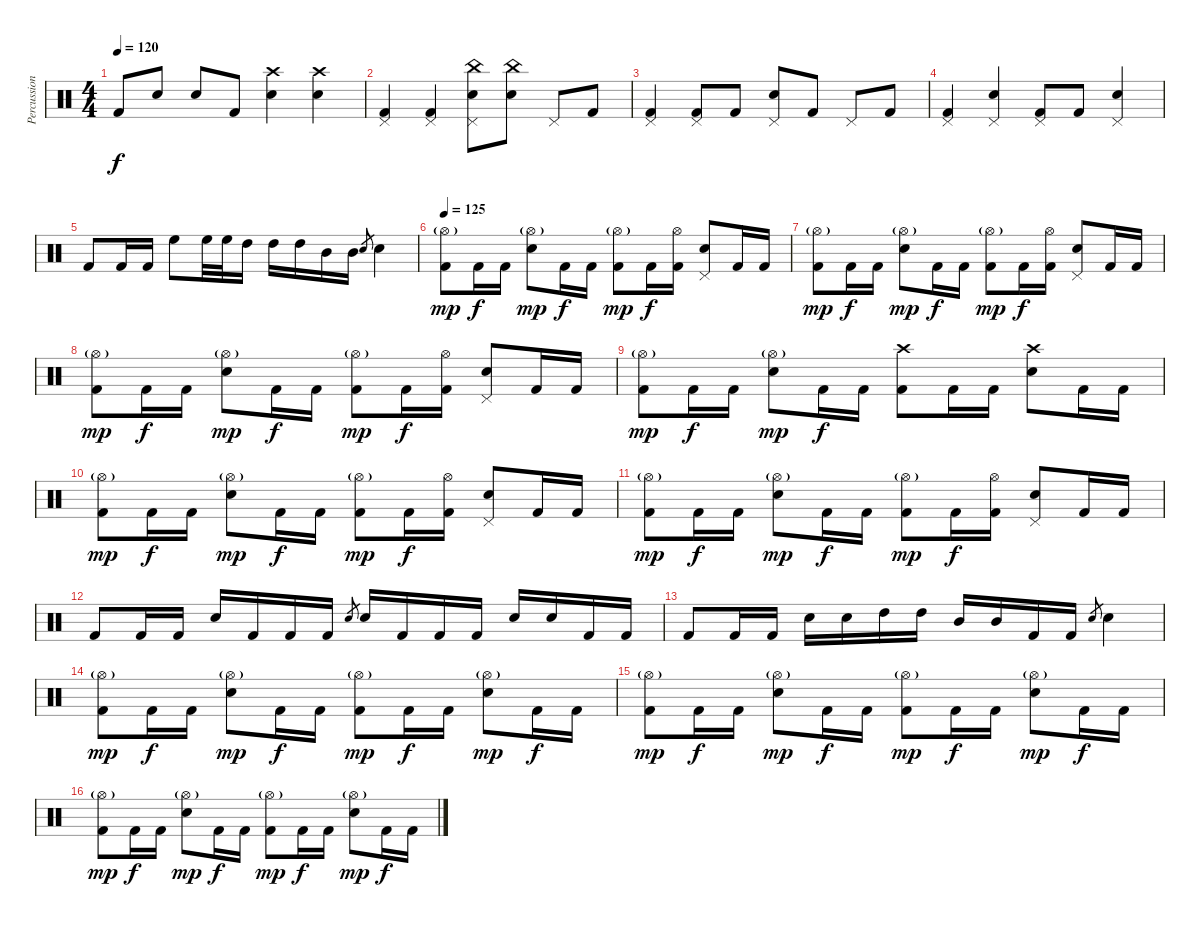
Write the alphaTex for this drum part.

\track ("Percussion" "Percussion") {instrument percussion}
\staff {score}
\articulation defaults
\ts (4 4)
\tempo 120
\clef neutral
\ks c "Kick (hit) 2".8{dy f} "Electric Snare (hit)".8 "Electric Snare (hit)".8 "Kick (hit) 2".8
("Crash high (hit)" "Electric Snare (hit)").4 ("Crash high (hit)" "Electric Snare (hit)").4 |
("Pedal Hi-Hat (hit)" "Kick (hit) 2").4 ("Pedal Hi-Hat (hit)" "Kick (hit) 2").4 ("Pedal Hi-Hat (hit)" "China (hit)" "Electric Snare (hit)").8 ("China (hit)" "Electric Snare (hit)").8 "Pedal Hi-Hat (hit)".8 "Kick (hit) 2".8 |
("Pedal Hi-Hat (hit)" "Kick (hit) 2").4 ("Pedal Hi-Hat (hit)" "Kick (hit) 2").8 "Kick (hit) 2".8 ("Pedal Hi-Hat (hit)" "Electric Snare (hit)").8 "Kick (hit) 2".8 "Pedal Hi-Hat (hit)".8 "Kick (hit) 2".8 |
("Pedal Hi-Hat (hit)" "Kick (hit) 2").4 ("Pedal Hi-Hat (hit)" "Electric Snare (hit)").4 ("Pedal Hi-Hat (hit)" "Kick (hit) 2").8 "Kick (hit) 2".8 ("Pedal Hi-Hat (hit)" "Electric Snare (hit)").4 |
"Kick (hit) 2".8 "Kick (hit) 2".16 "Kick (hit) 2".16 "High Floor Tom (hit)".8 "High Floor Tom (hit)".32 "High Floor Tom (hit)".32 "High Tom (hit)".16 "High Tom (hit)".16 "High Tom (hit)".16 "Mid Tom (hit)".16 "Mid Tom (hit)".16 "Electric Snare (hit)".8{gr} "Electric Snare (hit)".4 |
\tempo 125
("Hi-Hat (open)"{g} "Kick (hit) 2").8{dy mp} "Kick (hit) 2".16{dy f} "Kick (hit) 2".16 ("Hi-Hat (open)"{g} "Electric Snare (hit)").8{dy mp} "Kick (hit) 2".16{dy f} "Kick (hit) 2".16 ("Hi-Hat (open)"{g} "Kick (hit) 2").8{dy mp} "Kick (hit) 2".16{dy f} ("Hi-Hat (open)" "Kick (hit) 2").16 ("Pedal Hi-Hat (hit)" "Electric Snare (hit)").8 "Kick (hit) 2".16 "Kick (hit) 2".16 |
("Hi-Hat (open)"{g} "Kick (hit) 2").8{dy mp} "Kick (hit) 2".16{dy f} "Kick (hit) 2".16 ("Hi-Hat (open)"{g} "Electric Snare (hit)").8{dy mp} "Kick (hit) 2".16{dy f} "Kick (hit) 2".16 ("Hi-Hat (open)"{g} "Kick (hit) 2").8{dy mp} "Kick (hit) 2".16{dy f} ("Hi-Hat (open)" "Kick (hit) 2").16 ("Pedal Hi-Hat (hit)" "Electric Snare (hit)").8 "Kick (hit) 2".16 "Kick (hit) 2".16 |
("Hi-Hat (open)"{g} "Kick (hit) 2").8{dy mp} "Kick (hit) 2".16{dy f} "Kick (hit) 2".16 ("Hi-Hat (open)"{g} "Electric Snare (hit)").8{dy mp} "Kick (hit) 2".16{dy f} "Kick (hit) 2".16 ("Hi-Hat (open)"{g} "Kick (hit) 2").8{dy mp} "Kick (hit) 2".16{dy f} ("Hi-Hat (open)" "Kick (hit) 2").16 ("Pedal Hi-Hat (hit)" "Electric Snare (hit)").8 "Kick (hit) 2".16 "Kick (hit) 2".16 |
("Hi-Hat (open)"{g} "Kick (hit) 2").8{dy mp} "Kick (hit) 2".16{dy f} "Kick (hit) 2".16 ("Hi-Hat (open)"{g} "Electric Snare (hit)").8{dy mp} "Kick (hit) 2".16{dy f} "Kick (hit) 2".16 ("Crash high (hit)" "Kick (hit) 2").8 "Kick (hit) 2".16 "Kick (hit) 2".16 ("Crash high (hit)" "Electric Snare (hit)").8 "Kick (hit) 2".16 "Kick (hit) 2".16 |
("Hi-Hat (open)"{g} "Kick (hit) 2").8{dy mp} "Kick (hit) 2".16{dy f} "Kick (hit) 2".16 ("Hi-Hat (open)"{g} "Electric Snare (hit)").8{dy mp} "Kick (hit) 2".16{dy f} "Kick (hit) 2".16 ("Hi-Hat (open)"{g} "Kick (hit) 2").8{dy mp} "Kick (hit) 2".16{dy f} ("Hi-Hat (open)" "Kick (hit) 2").16 ("Pedal Hi-Hat (hit)" "Electric Snare (hit)").8 "Kick (hit) 2".16 "Kick (hit) 2".16 |
("Hi-Hat (open)"{g} "Kick (hit) 2").8{dy mp} "Kick (hit) 2".16{dy f} "Kick (hit) 2".16 ("Hi-Hat (open)"{g} "Electric Snare (hit)").8{dy mp} "Kick (hit) 2".16{dy f} "Kick (hit) 2".16 ("Hi-Hat (open)"{g} "Kick (hit) 2").8{dy mp} "Kick (hit) 2".16{dy f} ("Hi-Hat (open)" "Kick (hit) 2").16 ("Pedal Hi-Hat (hit)" "Electric Snare (hit)").8 "Kick (hit) 2".16 "Kick (hit) 2".16 |
"Kick (hit) 2".8 "Kick (hit) 2".16 "Kick (hit) 2".16 "Electric Snare (hit)".16 "Kick (hit) 2".16 "Kick (hit) 2".16 "Kick (hit) 2".16 "Electric Snare (hit)".8{gr} "Electric Snare (hit)".16 "Kick (hit) 2".16 "Kick (hit) 2".16 "Kick (hit) 2".16 "Electric Snare (hit)".16 "Electric Snare (hit)".16 "Kick (hit) 2".16 "Kick (hit) 2".16 |
"Kick (hit) 2".8 "Kick (hit) 2".16 "Kick (hit) 2".16 "Electric Snare (hit)".16 "Electric Snare (hit)".16 "High Tom (hit)".16 "High Tom (hit)".16 "Mid Tom (hit)".16 "Mid Tom (hit)".16 "Kick (hit) 2".16 "Kick (hit) 2".16 "Electric Snare (hit)".8{gr} "Electric Snare (hit)".4 |
("Hi-Hat (open)"{g} "Kick (hit) 2").8{dy mp} "Kick (hit) 2".16{dy f} "Kick (hit) 2".16 ("Hi-Hat (open)"{g} "Electric Snare (hit)").8{dy mp} "Kick (hit) 2".16{dy f} "Kick (hit) 2".16 ("Hi-Hat (open)"{g} "Kick (hit) 2").8{dy mp} "Kick (hit) 2".16{dy f} "Kick (hit) 2".16 ("Hi-Hat (open)"{g} "Electric Snare (hit)").8{dy mp} "Kick (hit) 2".16{dy f} "Kick (hit) 2".16 |
("Hi-Hat (open)"{g} "Kick (hit) 2").8{dy mp} "Kick (hit) 2".16{dy f} "Kick (hit) 2".16 ("Hi-Hat (open)"{g} "Electric Snare (hit)").8{dy mp} "Kick (hit) 2".16{dy f} "Kick (hit) 2".16 ("Hi-Hat (open)"{g} "Kick (hit) 2").8{dy mp} "Kick (hit) 2".16{dy f} "Kick (hit) 2".16 ("Hi-Hat (open)"{g} "Electric Snare (hit)").8{dy mp} "Kick (hit) 2".16{dy f} "Kick (hit) 2".16 |
("Hi-Hat (open)"{g} "Kick (hit) 2").8{dy mp} "Kick (hit) 2".16{dy f} "Kick (hit) 2".16 ("Hi-Hat (open)"{g} "Electric Snare (hit)").8{dy mp} "Kick (hit) 2".16{dy f} "Kick (hit) 2".16 ("Hi-Hat (open)"{g} "Kick (hit) 2").8{dy mp} "Kick (hit) 2".16{dy f} "Kick (hit) 2".16 ("Hi-Hat (open)"{g} "Electric Snare (hit)").8{dy mp} "Kick (hit) 2".16{dy f} "Kick (hit) 2".16
